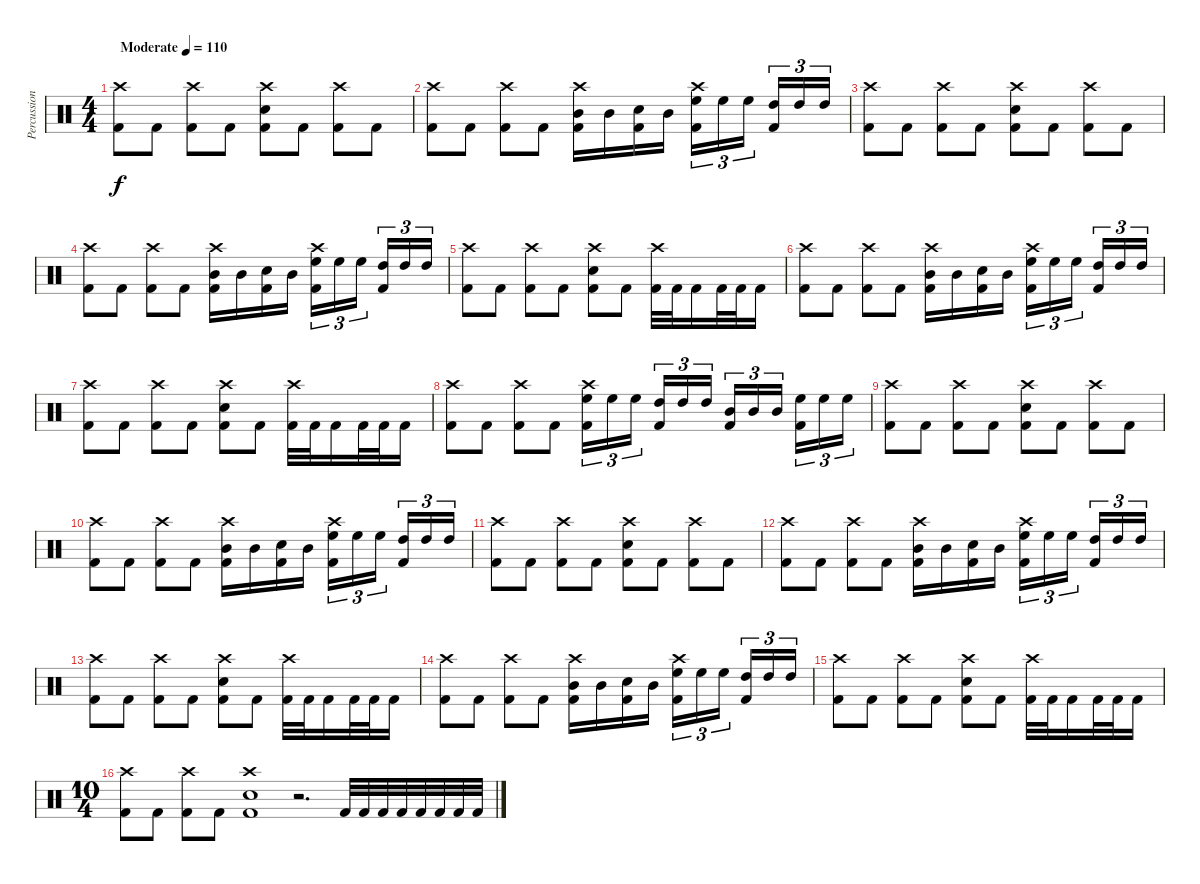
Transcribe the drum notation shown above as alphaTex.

\track ("Percussion" "Percussion") {instrument percussion}
\staff {score}
\articulation defaults
\ts (4 4)
\tempo (110 "Moderate")
\clef neutral
\ks c
("Crash high (hit)" "Kick (hit) 2").8{dy f} "Kick (hit) 2".8 ("Crash high (hit)" "Kick (hit) 2").8 "Kick (hit) 2".8 ("Crash high (hit)" "Snare (hit) 2" "Kick (hit) 2").8 "Kick (hit) 2".8 ("Crash high (hit)" "Kick (hit) 2").8 "Kick (hit) 2".8 |
("Crash high (hit)" "Kick (hit) 2").8 "Kick (hit) 2".8 ("Crash high (hit)" "Kick (hit) 2").8 "Kick (hit) 2".8 ("Crash high (hit)" "Mid Tom (hit)" "Kick (hit) 2").16 "Mid Tom (hit)".16 ("Snare (hit) 2" "Kick (hit) 2").16 "Mid Tom (hit)".16 ("Crash high (hit)" "High Floor Tom (hit)" "Kick (hit) 2").16{tu (3 2)} "High Floor Tom (hit)".16{tu (3 2)} "High Floor Tom (hit)".16{tu (3 2) beam splitsecondary} ("High Tom (hit)" "Kick (hit) 2").16{tu (3 2)} "High Tom (hit)".16{tu (3 2)} "High Tom (hit)".16{tu (3 2)} |
("Crash high (hit)" "Kick (hit) 2").8 "Kick (hit) 2".8 ("Crash high (hit)" "Kick (hit) 2").8 "Kick (hit) 2".8 ("Crash high (hit)" "Snare (hit) 2" "Kick (hit) 2").8 "Kick (hit) 2".8 ("Crash high (hit)" "Kick (hit) 2").8 "Kick (hit) 2".8 |
("Crash high (hit)" "Kick (hit) 2").8 "Kick (hit) 2".8 ("Crash high (hit)" "Kick (hit) 2").8 "Kick (hit) 2".8 ("Crash high (hit)" "Mid Tom (hit)" "Kick (hit) 2").16 "Mid Tom (hit)".16 ("Snare (hit) 2" "Kick (hit) 2").16 "Mid Tom (hit)".16 ("Crash high (hit)" "High Floor Tom (hit)" "Kick (hit) 2").16{tu (3 2)} "High Floor Tom (hit)".16{tu (3 2)} "High Floor Tom (hit)".16{tu (3 2) beam splitsecondary} ("High Tom (hit)" "Kick (hit) 2").16{tu (3 2)} "High Tom (hit)".16{tu (3 2)} "High Tom (hit)".16{tu (3 2)} |
("Crash high (hit)" "Kick (hit) 2").8 "Kick (hit) 2".8 ("Crash high (hit)" "Kick (hit) 2").8 "Kick (hit) 2".8 ("Crash high (hit)" "Snare (hit) 2" "Kick (hit) 2").8 "Kick (hit) 2".8 ("Crash high (hit)" "Kick (hit) 2").32 "Kick (hit) 2".32 "Kick (hit) 2".16 "Kick (hit) 2".32 "Kick (hit) 2".32 "Kick (hit) 2".16 |
("Crash high (hit)" "Kick (hit) 2").8 "Kick (hit) 2".8 ("Crash high (hit)" "Kick (hit) 2").8 "Kick (hit) 2".8 ("Crash high (hit)" "Mid Tom (hit)" "Kick (hit) 2").16 "Mid Tom (hit)".16 ("Snare (hit) 2" "Kick (hit) 2").16 "Mid Tom (hit)".16 ("Crash high (hit)" "High Floor Tom (hit)" "Kick (hit) 2").16{tu (3 2)} "High Floor Tom (hit)".16{tu (3 2)} "High Floor Tom (hit)".16{tu (3 2) beam splitsecondary} ("High Tom (hit)" "Kick (hit) 2").16{tu (3 2)} "High Tom (hit)".16{tu (3 2)} "High Tom (hit)".16{tu (3 2)} |
("Crash high (hit)" "Kick (hit) 2").8 "Kick (hit) 2".8 ("Crash high (hit)" "Kick (hit) 2").8 "Kick (hit) 2".8 ("Crash high (hit)" "Snare (hit) 2" "Kick (hit) 2").8 "Kick (hit) 2".8 ("Crash high (hit)" "Kick (hit) 2").32 "Kick (hit) 2".32 "Kick (hit) 2".16 "Kick (hit) 2".32 "Kick (hit) 2".32 "Kick (hit) 2".16 |
("Crash high (hit)" "Kick (hit) 2").8 "Kick (hit) 2".8 ("Crash high (hit)" "Kick (hit) 2").8 "Kick (hit) 2".8 ("Crash high (hit)" "High Floor Tom (hit)" "Kick (hit) 2").16{tu (3 2)} "High Floor Tom (hit)".16{tu (3 2)} "High Floor Tom (hit)".16{tu (3 2) beam splitsecondary} ("High Tom (hit)" "Kick (hit) 2").16{tu (3 2)} "High Tom (hit)".16{tu (3 2)} "High Tom (hit)".16{tu (3 2)} ("Mid Tom (hit)" "Kick (hit) 2").16{tu (3 2)} "Mid Tom (hit)".16{tu (3 2)} "Mid Tom (hit)".16{tu (3 2) beam splitsecondary} ("High Floor Tom (hit)" "Kick (hit) 2").16{tu (3 2)} "High Floor Tom (hit)".16{tu (3 2)} "High Floor Tom (hit)".16{tu (3 2)} |
("Crash high (hit)" "Kick (hit) 2").8 "Kick (hit) 2".8 ("Crash high (hit)" "Kick (hit) 2").8 "Kick (hit) 2".8 ("Crash high (hit)" "Snare (hit) 2" "Kick (hit) 2").8 "Kick (hit) 2".8 ("Crash high (hit)" "Kick (hit) 2").8 "Kick (hit) 2".8 |
("Crash high (hit)" "Kick (hit) 2").8 "Kick (hit) 2".8 ("Crash high (hit)" "Kick (hit) 2").8 "Kick (hit) 2".8 ("Crash high (hit)" "Mid Tom (hit)" "Kick (hit) 2").16 "Mid Tom (hit)".16 ("Snare (hit) 2" "Kick (hit) 2").16 "Mid Tom (hit)".16 ("Crash high (hit)" "High Floor Tom (hit)" "Kick (hit) 2").16{tu (3 2)} "High Floor Tom (hit)".16{tu (3 2)} "High Floor Tom (hit)".16{tu (3 2) beam splitsecondary} ("High Tom (hit)" "Kick (hit) 2").16{tu (3 2)} "High Tom (hit)".16{tu (3 2)} "High Tom (hit)".16{tu (3 2)} |
("Crash high (hit)" "Kick (hit) 2").8 "Kick (hit) 2".8 ("Crash high (hit)" "Kick (hit) 2").8 "Kick (hit) 2".8 ("Crash high (hit)" "Snare (hit) 2" "Kick (hit) 2").8 "Kick (hit) 2".8 ("Crash high (hit)" "Kick (hit) 2").8 "Kick (hit) 2".8 |
("Crash high (hit)" "Kick (hit) 2").8 "Kick (hit) 2".8 ("Crash high (hit)" "Kick (hit) 2").8 "Kick (hit) 2".8 ("Crash high (hit)" "Mid Tom (hit)" "Kick (hit) 2").16 "Mid Tom (hit)".16 ("Snare (hit) 2" "Kick (hit) 2").16 "Mid Tom (hit)".16 ("Crash high (hit)" "High Floor Tom (hit)" "Kick (hit) 2").16{tu (3 2)} "High Floor Tom (hit)".16{tu (3 2)} "High Floor Tom (hit)".16{tu (3 2) beam splitsecondary} ("High Tom (hit)" "Kick (hit) 2").16{tu (3 2)} "High Tom (hit)".16{tu (3 2)} "High Tom (hit)".16{tu (3 2)} |
("Crash high (hit)" "Kick (hit) 2").8 "Kick (hit) 2".8 ("Crash high (hit)" "Kick (hit) 2").8 "Kick (hit) 2".8 ("Crash high (hit)" "Snare (hit) 2" "Kick (hit) 2").8 "Kick (hit) 2".8 ("Crash high (hit)" "Kick (hit) 2").32 "Kick (hit) 2".32 "Kick (hit) 2".16 "Kick (hit) 2".32 "Kick (hit) 2".32 "Kick (hit) 2".16 |
("Crash high (hit)" "Kick (hit) 2").8 "Kick (hit) 2".8 ("Crash high (hit)" "Kick (hit) 2").8 "Kick (hit) 2".8 ("Crash high (hit)" "Mid Tom (hit)" "Kick (hit) 2").16 "Mid Tom (hit)".16 ("Snare (hit) 2" "Kick (hit) 2").16 "Mid Tom (hit)".16 ("Crash high (hit)" "High Floor Tom (hit)" "Kick (hit) 2").16{tu (3 2)} "High Floor Tom (hit)".16{tu (3 2)} "High Floor Tom (hit)".16{tu (3 2) beam splitsecondary} ("High Tom (hit)" "Kick (hit) 2").16{tu (3 2)} "High Tom (hit)".16{tu (3 2)} "High Tom (hit)".16{tu (3 2)} |
("Crash high (hit)" "Kick (hit) 2").8 "Kick (hit) 2".8 ("Crash high (hit)" "Kick (hit) 2").8 "Kick (hit) 2".8 ("Crash high (hit)" "Snare (hit) 2" "Kick (hit) 2").8 "Kick (hit) 2".8 ("Crash high (hit)" "Kick (hit) 2").32 "Kick (hit) 2".32 "Kick (hit) 2".16 "Kick (hit) 2".32 "Kick (hit) 2".32 "Kick (hit) 2".16 |
\ts (10 4)
("Crash high (hit)" "Kick (hit) 2").8 "Kick (hit) 2".8 ("Crash high (hit)" "Kick (hit) 2").8 "Kick (hit) 2".8 ("Crash high (hit)" "Snare (hit) 2" "Kick (hit) 2").1 r.2{d} "Kick (hit) 2".32 "Kick (hit) 2".32 "Kick (hit) 2".32 "Kick (hit) 2".32 "Kick (hit) 2".32 "Kick (hit) 2".32 "Kick (hit) 2".32 "Kick (hit) 2".32
